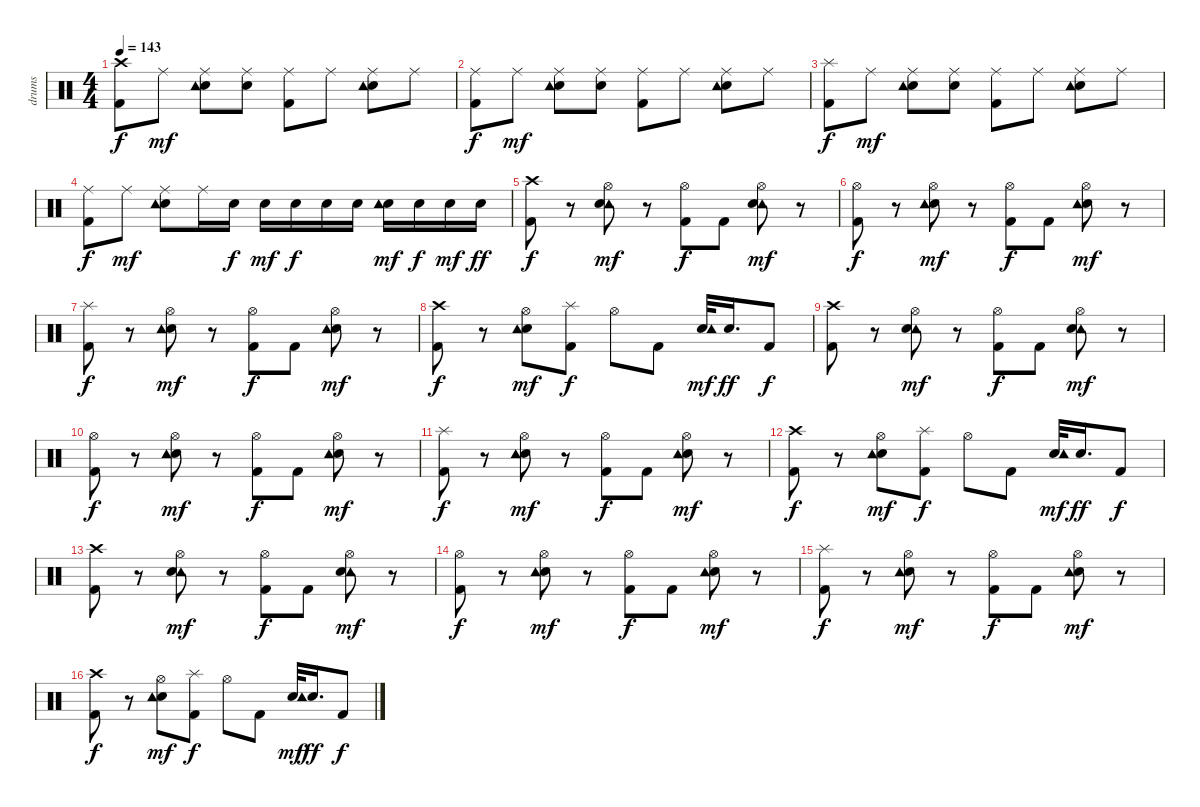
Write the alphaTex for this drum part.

\track ("drums" "drums") {instrument percussion}
\staff {score}
\articulation defaults
\ts (4 4)
\tempo 143
\clef neutral
\ks c
("Crash high (hit)" "Kick (hit) 2").8{dy f} "Ride (middle)".8{dy mf} ("Snare (hit) 2" "Ride (middle)" "Tambourine (hit)").8 ("Snare (hit) 2" "Ride (middle)").8 ("Ride (middle)" "Kick (hit) 2").8 "Ride (middle)".8 ("Ride (middle)" "Snare (hit) 2" "Tambourine (hit)").8 "Ride (middle)".8 |
("Kick (hit) 2" "Ride (middle)").8{dy f} "Ride (middle)".8{dy mf} ("Snare (hit) 2" "Ride (middle)" "Tambourine (hit)").8 ("Ride (middle)" "Snare (hit) 2").8 ("Ride (middle)" "Kick (hit) 2").8 "Ride (middle)".8 ("Ride (middle)" "Snare (hit) 2" "Tambourine (hit)").8 "Ride (middle)".8 |
("Kick (hit) 2" "Splash (hit)").8{dy f} "Ride (middle)".8{dy mf} ("Snare (hit) 2" "Ride (middle)" "Tambourine (hit)").8 ("Ride (middle)" "Snare (hit) 2").8 ("Ride (middle)" "Kick (hit) 2").8 "Ride (middle)".8 ("Ride (middle)" "Snare (hit) 2" "Tambourine (hit)").8 "Ride (middle)".8 |
("Kick (hit) 2" "Ride (middle)").8{dy f} "Ride (middle)".8{dy mf} ("Snare (hit) 2" "Ride (middle)" "Tambourine (hit)").8 "Ride (middle)".16 "Snare (hit) 2".16{dy f} "Snare (hit) 2".16{dy mf} "Snare (hit) 2".16{dy f} "Snare (hit) 2".16 "Snare (hit) 2".16 ("Snare (hit) 2" "Tambourine (hit)").16{dy mf} "Snare (hit) 2".16{dy f} "Snare (hit) 2".16{dy mf} "Snare (hit) 2".16{dy ff} |
("Crash high (hit)" "Kick (hit) 2").8{dy f} r.8 ("Tambourine (hit)" "Snare (hit) 2" "Hi-Hat (open)").8{dy mf} r.8 ("Kick (hit) 2" "Hi-Hat (open)").8{dy f} "Kick (hit) 2".8 ("Tambourine (hit)" "Snare (hit) 2" "Hi-Hat (open)").8{dy mf} r.8 |
("Kick (hit) 2" "Hi-Hat (open)").8{dy f} r.8 ("Snare (hit) 2" "Hi-Hat (open)" "Tambourine (hit)").8{dy mf} r.8 ("Kick (hit) 2" "Hi-Hat (open)").8{dy f} "Kick (hit) 2".8 ("Hi-Hat (open)" "Snare (hit) 2" "Tambourine (hit)").8{dy mf} r.8 |
("Splash (hit)" "Kick (hit) 2").8{dy f} r.8 ("Hi-Hat (open)" "Snare (hit) 2" "Tambourine (hit)").8{dy mf} r.8 ("Kick (hit) 2" "Hi-Hat (open)").8{dy f} "Kick (hit) 2".8 ("Snare (hit) 2" "Hi-Hat (open)" "Tambourine (hit)").8{dy mf} r.8 |
("Crash high (hit)" "Kick (hit) 2").8{dy f} r.8 ("Snare (hit) 2" "Hi-Hat (open)" "Tambourine (hit)").8{dy mf} ("Splash (hit)" "Kick (hit) 2").8{dy f} "Hi-Hat (open)".8 "Kick (hit) 2".8 ("Snare (hit) 2" "Tambourine (hit)").32{dy mf} "Snare (hit) 2".16{d dy ff} "Kick (hit) 2".8{dy f} |
("Crash high (hit)" "Kick (hit) 2").8 r.8 ("Tambourine (hit)" "Snare (hit) 2" "Hi-Hat (open)").8{dy mf} r.8 ("Kick (hit) 2" "Hi-Hat (open)").8{dy f} "Kick (hit) 2".8 ("Tambourine (hit)" "Snare (hit) 2" "Hi-Hat (open)").8{dy mf} r.8 |
("Kick (hit) 2" "Hi-Hat (open)").8{dy f} r.8 ("Snare (hit) 2" "Hi-Hat (open)" "Tambourine (hit)").8{dy mf} r.8 ("Kick (hit) 2" "Hi-Hat (open)").8{dy f} "Kick (hit) 2".8 ("Hi-Hat (open)" "Snare (hit) 2" "Tambourine (hit)").8{dy mf} r.8 |
("Splash (hit)" "Kick (hit) 2").8{dy f} r.8 ("Hi-Hat (open)" "Snare (hit) 2" "Tambourine (hit)").8{dy mf} r.8 ("Kick (hit) 2" "Hi-Hat (open)").8{dy f} "Kick (hit) 2".8 ("Snare (hit) 2" "Hi-Hat (open)" "Tambourine (hit)").8{dy mf} r.8 |
("Crash high (hit)" "Kick (hit) 2").8{dy f} r.8 ("Snare (hit) 2" "Hi-Hat (open)" "Tambourine (hit)").8{dy mf} ("Splash (hit)" "Kick (hit) 2").8{dy f} "Hi-Hat (open)".8 "Kick (hit) 2".8 ("Snare (hit) 2" "Tambourine (hit)").32{dy mf} "Snare (hit) 2".16{d dy ff} "Kick (hit) 2".8{dy f} |
("Crash high (hit)" "Kick (hit) 2").8 r.8 ("Tambourine (hit)" "Snare (hit) 2" "Hi-Hat (open)").8{dy mf} r.8 ("Kick (hit) 2" "Hi-Hat (open)").8{dy f} "Kick (hit) 2".8 ("Tambourine (hit)" "Snare (hit) 2" "Hi-Hat (open)").8{dy mf} r.8 |
("Kick (hit) 2" "Hi-Hat (open)").8{dy f} r.8 ("Snare (hit) 2" "Hi-Hat (open)" "Tambourine (hit)").8{dy mf} r.8 ("Kick (hit) 2" "Hi-Hat (open)").8{dy f} "Kick (hit) 2".8 ("Hi-Hat (open)" "Snare (hit) 2" "Tambourine (hit)").8{dy mf} r.8 |
("Splash (hit)" "Kick (hit) 2").8{dy f} r.8 ("Hi-Hat (open)" "Snare (hit) 2" "Tambourine (hit)").8{dy mf} r.8 ("Kick (hit) 2" "Hi-Hat (open)").8{dy f} "Kick (hit) 2".8 ("Snare (hit) 2" "Hi-Hat (open)" "Tambourine (hit)").8{dy mf} r.8 |
("Crash high (hit)" "Kick (hit) 2").8{dy f} r.8 ("Snare (hit) 2" "Hi-Hat (open)" "Tambourine (hit)").8{dy mf} ("Splash (hit)" "Kick (hit) 2").8{dy f} "Hi-Hat (open)".8 "Kick (hit) 2".8 ("Snare (hit) 2" "Tambourine (hit)").32{dy mf} "Snare (hit) 2".16{d dy ff} "Kick (hit) 2".8{dy f}
